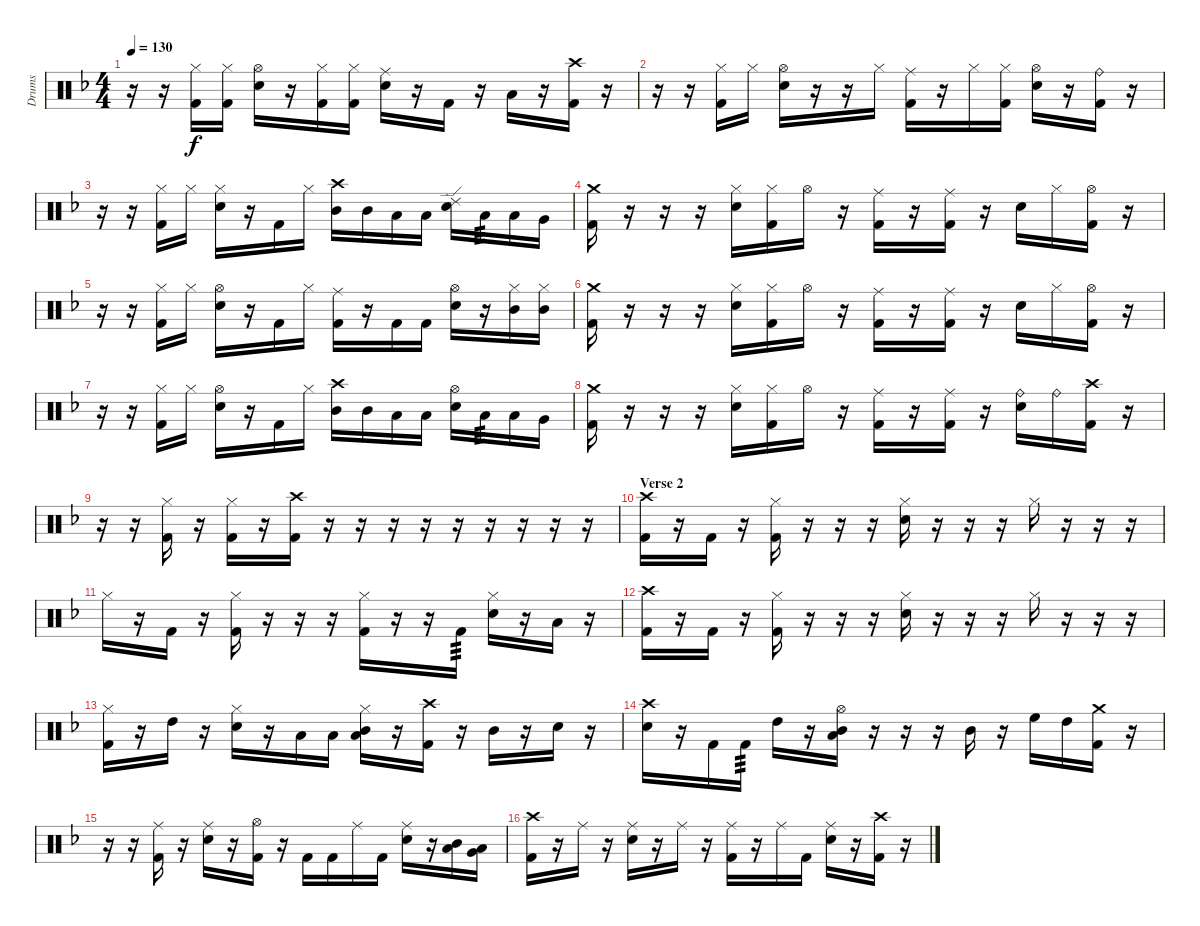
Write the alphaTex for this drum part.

\track ("Drums" "Drums") {instrument percussion}
\staff {score}
\articulation defaults
\ts (4 4)
\tempo 130
\clef neutral
\ks dminor
r.16{dy f} r.16 ("Kick (hit) 2" "Hi-Hat (closed)").16 ("Kick (hit) 2" "Hi-Hat (closed)").16 ("Snare (hit) 2" "Hi-Hat (open)").16 r.16 ("Kick (hit) 2" "Hi-Hat (closed)").16 ("Kick (hit) 2" "Hi-Hat (closed)").16 ("Snare (hit) 2" "Ride (middle)").16 r.16 "Kick (hit) 2".16 r.16 "Low Tom (hit)".16 r.16 ("Crash high (hit)" "Kick (hit) 2").16 r.16 |
r.16 r.16 ("Kick (hit) 2" "Hi-Hat (closed)").16 "Hi-Hat (closed)".16 ("Snare (hit) 2" "Hi-Hat (open)").16 r.16 r.16 "Hi-Hat (closed)".16 ("Kick (hit) 2" "Ride (middle)").16 r.16 "Hi-Hat (closed)".16 ("Kick (hit) 2" "Hi-Hat (closed)").16 ("Snare (hit) 2" "Hi-Hat (open)").16 r.16 ("Kick (hit) 2" "Ride (bell)").16 r.16 |
r.16 r.16 ("Kick (hit) 2" "Hi-Hat (closed)").16 "Hi-Hat (closed)".16 ("Snare (hit) 2" "Hi-Hat (closed)").16 r.16 "Kick (hit) 2".16 "Hi-Hat (closed)".16 ("Mid Tom (hit)" "Crash high (hit)").16 "Mid Tom (hit)".16 "Low Tom (hit)".16 "Low Tom (hit)".16 ("Snare (hit) 2" "Ride (edge) 2").16 "Low Tom (hit)".16{tp 3} "Low Tom (hit)".16 "Very Low Tom (hit)".16 |
("Kick (hit) 2" "Crash medium (hit)").16 r.16 r.16 r.16 ("Snare (hit) 2" "Hi-Hat (closed)").16 ("Kick (hit) 2" "Hi-Hat (closed)").16 "Hi-Hat (open)".16 r.16 ("Kick (hit) 2" "Ride (middle)").16 r.16 ("Kick (hit) 2" "Ride (middle)").16 r.16 "Snare (hit) 2".16 "Hi-Hat (closed)".16 ("Kick (hit) 2" "Hi-Hat (open)").16 r.16 |
r.16 r.16 ("Kick (hit) 2" "Hi-Hat (closed)").16 "Hi-Hat (closed)".16 ("Snare (hit) 2" "Hi-Hat (open)").16 r.16 "Kick (hit) 2".16 "Hi-Hat (closed)".16 ("Kick (hit) 2" "Ride (middle)").16 r.16 "Kick (hit) 2".16 "Kick (hit) 2".16 ("Snare (hit) 2" "Hi-Hat (open)").16 r.16 ("Mid Tom (hit)" "Hi-Hat (closed)").16 ("Mid Tom (hit)" "Hi-Hat (closed)").16 |
("Kick (hit) 2" "Crash medium (hit)").16 r.16 r.16 r.16 ("Snare (hit) 2" "Hi-Hat (closed)").16 ("Kick (hit) 2" "Hi-Hat (closed)").16 "Hi-Hat (open)".16 r.16 ("Kick (hit) 2" "Ride (middle)").16 r.16 ("Kick (hit) 2" "Ride (middle)").16 r.16 "Snare (hit) 2".16 "Hi-Hat (closed)".16 ("Kick (hit) 2" "Hi-Hat (open)").16 r.16 |
r.16 r.16 ("Kick (hit) 2" "Hi-Hat (closed)").16 "Hi-Hat (closed)".16 ("Snare (hit) 2" "Hi-Hat (open)").16 r.16 "Kick (hit) 2".16 "Hi-Hat (closed)".16 ("Mid Tom (hit)" "Crash high (hit)").16 "Mid Tom (hit)".16 "Low Tom (hit)".16 "Low Tom (hit)".16 ("Snare (hit) 2" "Hi-Hat (open)").16 "Low Tom (hit)".16{tp 3} "Low Tom (hit)".16 "Very Low Tom (hit)".16 |
("Kick (hit) 2" "Crash medium (hit)").16 r.16 r.16 r.16 ("Snare (hit) 2" "Hi-Hat (closed)").16 ("Kick (hit) 2" "Hi-Hat (closed)").16 "Hi-Hat (open)".16 r.16 ("Kick (hit) 2" "Ride (middle)").16 r.16 ("Kick (hit) 2" "Ride (middle)").16 r.16 ("Snare (hit) 2" "Ride (bell)").16 "Ride (bell)".16 ("Kick (hit) 2" "Crash high (hit)").16 r.16 |
r.16 r.16 ("Hi-Hat (closed)" "Kick (hit) 2").16 r.16 ("Hi-Hat (closed)" "Kick (hit) 2").16 r.16 ("Crash high (hit)" "Kick (hit) 2").16 r.16 r.16 r.16 r.16 r.16 r.16 r.16 r.16 r.16 |
\section ("" "Verse 2")
("Kick (hit) 2" "Crash high (hit)").16 r.16 "Kick (hit) 2".16 r.16 ("Kick (hit) 2" "Hi-Hat (closed)").16 r.16 r.16 r.16 ("Snare (hit) 2" "Hi-Hat (closed)").16 r.16 r.16 r.16 "Hi-Hat (closed)".16 r.16 r.16 r.16 |
"Hi-Hat (closed)".16 r.16 "Kick (hit) 2".16 r.16 ("Kick (hit) 2" "Hi-Hat (closed)").16 r.16 r.16 r.16 ("Kick (hit) 2" "Hi-Hat (closed)").16 r.16 r.16 "Kick (hit) 2".16{tp 3} ("Snare (hit) 2" "Hi-Hat (closed)").16 r.16 "Low Tom (hit)".16 r.16 |
("Kick (hit) 2" "Crash high (hit)").16 r.16 "Kick (hit) 2".16 r.16 ("Kick (hit) 2" "Hi-Hat (closed)").16 r.16 r.16 r.16 ("Snare (hit) 2" "Hi-Hat (closed)").16 r.16 r.16 r.16 "Hi-Hat (closed)".16 r.16 r.16 r.16 |
("Kick (hit) 2" "Hi-Hat (closed)").16 r.16 "High Tom (hit)".16 r.16 ("Snare (hit) 2" "Hi-Hat (closed)").16 r.16 "Low Tom (hit)".16 "Low Tom (hit)".16 ("Low Tom (hit)" "Mid Tom (hit)" "Hi-Hat (closed)").16 r.16 ("Crash high (hit)" "Kick (hit) 2").16 r.16 "Mid Tom (hit)".16 r.16 "Snare (hit) 2".16 r.16 |
("Crash high (hit)" "Snare (hit) 2").16 r.16 "Kick (hit) 2".16 "Kick (hit) 2".16{tp 3} "High Tom (hit)".16 r.16 ("Mid Tom (hit)" "Low Tom (hit)" "Hi-Hat (open)").16 r.16 r.16 r.16 "Mid Tom (hit)".16 r.16 "High Floor Tom (hit)".16 "High Tom (hit)".16 ("Crash medium (hit)" "Kick (hit) 2").16 r.16 |
r.16 r.16 ("Kick (hit) 2" "Ride (middle)").16 r.16 ("Snare (hit) 2" "Ride (middle)").16 r.16 ("Kick (hit) 2" "Hi-Hat (open)").16 r.16 "Kick (hit) 2".16 "Kick (hit) 2".16 "Ride (middle)".16 "Kick (hit) 2".16 ("Ride (middle)" "Snare (hit) 2").16 r.16 ("Mid Tom (hit)" "Low Tom (hit)").16 ("Low Tom (hit)" "Very Low Tom (hit)").16 |
("Crash high (hit)" "Kick (hit) 2").16 r.16 "Ride (middle)".16 r.16 ("Snare (hit) 2" "Ride (middle)").16 r.16 "Ride (middle)".16 r.16 ("Ride (middle)" "Kick (hit) 2").16 r.16 "Ride (middle)".16 "Kick (hit) 2".16 ("Snare (hit) 2" "Ride (middle)").16 r.16 ("Crash high (hit)" "Kick (hit) 2").16 r.16
